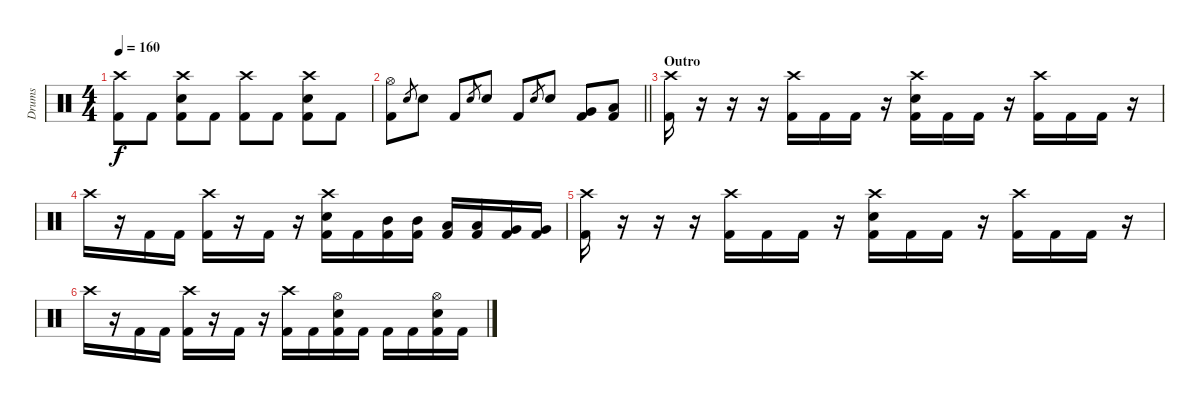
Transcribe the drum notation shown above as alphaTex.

\track ("Drums" "Drums") {instrument percussion}
\staff {score}
\articulation defaults
\ts (4 4)
\tempo 160
\clef neutral
\ks c
("Crash high (hit)" "Kick (hit) 2").8{dy f} "Kick (hit) 2".8 ("Crash high (hit)" "Electric Snare (hit)" "Kick (hit) 2").8 "Kick (hit) 2".8 ("Crash high (hit)" "Kick (hit) 2").8 "Kick (hit) 2".8 ("Crash high (hit)" "Electric Snare (hit)" "Kick (hit) 2").8 "Kick (hit) 2".8 |
\barLineRight lightlight
("Hi-Hat (open)" "Kick (hit) 2").8 "Electric Snare (hit)".8{gr} "Electric Snare (hit)".8 "Kick (hit) 2".8 "Electric Snare (hit)".8{gr} "Electric Snare (hit)".8 "Kick (hit) 2".8 "Electric Snare (hit)".8{gr} "Electric Snare (hit)".8 ("Very Low Tom (hit)" "Kick (hit) 2").8 ("Low Floor Tom (hit)" "Kick (hit) 2").8 |
\section ("" "Outro")
("Crash high (hit)" "Kick (hit) 2").16 r.16 r.16 r.16 ("Crash high (hit)" "Kick (hit) 2").16 "Kick (hit) 2".16 "Kick (hit) 2".16 r.16 ("Crash high (hit)" "Electric Snare (hit)" "Kick (hit) 2").16 "Kick (hit) 2".16 "Kick (hit) 2".16 r.16 ("Crash high (hit)" "Kick (hit) 2").16 "Kick (hit) 2".16 "Kick (hit) 2".16 r.16 |
"Crash high (hit)".16 r.16 "Kick (hit) 2".16 "Kick (hit) 2".16 ("Crash high (hit)" "Kick (hit) 2").16 r.16 "Kick (hit) 2".16 r.16 ("Crash high (hit)" "Electric Snare (hit)" "Kick (hit) 2").16 "Kick (hit) 2".16 ("Mid Tom (hit)" "Kick (hit) 2").16 ("Mid Tom (hit)" "Kick (hit) 2").16 ("Low Tom (hit)" "Kick (hit) 2").16 ("Low Tom (hit)" "Kick (hit) 2").16 ("Very Low Tom (hit)" "Kick (hit) 2").16 ("Very Low Tom (hit)" "Kick (hit) 2").16 |
("Crash high (hit)" "Kick (hit) 2").16 r.16 r.16 r.16 ("Crash high (hit)" "Kick (hit) 2").16 "Kick (hit) 2".16 "Kick (hit) 2".16 r.16 ("Crash high (hit)" "Electric Snare (hit)" "Kick (hit) 2").16 "Kick (hit) 2".16 "Kick (hit) 2".16 r.16 ("Crash high (hit)" "Kick (hit) 2").16 "Kick (hit) 2".16 "Kick (hit) 2".16 r.16 |
"Crash high (hit)".16 r.16 "Kick (hit) 2".16 "Kick (hit) 2".16 ("Crash high (hit)" "Kick (hit) 2").16 r.16 "Kick (hit) 2".16 r.16 ("Crash high (hit)" "Kick (hit) 2").16 "Kick (hit) 2".16 ("Hi-Hat (open)" "Electric Snare (hit)" "Kick (hit) 2").16 "Kick (hit) 2".16 "Kick (hit) 2".16 "Kick (hit) 2".16 ("Hi-Hat (open)" "Electric Snare (hit)" "Kick (hit) 2").16 "Kick (hit) 2".16
